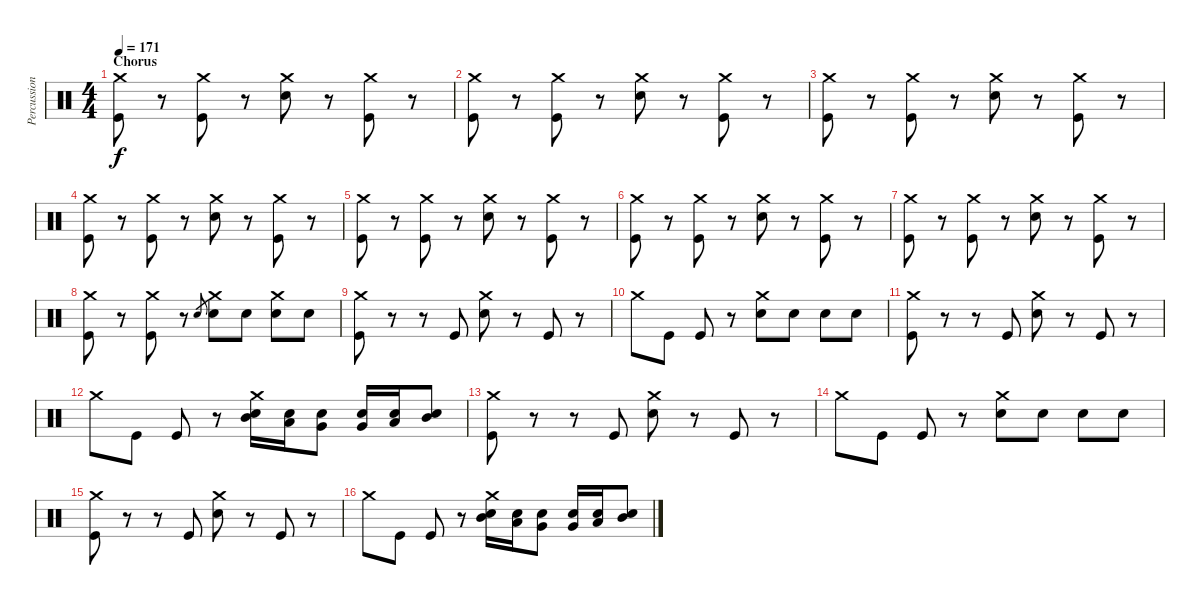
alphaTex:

\track ("Percussion" "Percussion") {instrument percussion}
\staff {score}
\articulation defaults
\ts (4 4)
\section ("" "Chorus")
\tempo 171
\clef neutral
\ks c
("Crash medium (hit)" "Kick (hit)").8{dy f} r.8 ("Crash medium (hit)" "Kick (hit)").8 r.8 ("Crash medium (hit)" "Electric Snare (hit)").8 r.8 ("Crash medium (hit)" "Kick (hit)").8 r.8 |
("Crash medium (hit)" "Kick (hit)").8 r.8 ("Crash medium (hit)" "Kick (hit)").8 r.8 ("Crash medium (hit)" "Electric Snare (hit)").8 r.8 ("Crash medium (hit)" "Kick (hit)").8 r.8 |
("Crash medium (hit)" "Kick (hit)").8 r.8 ("Crash medium (hit)" "Kick (hit)").8 r.8 ("Crash medium (hit)" "Electric Snare (hit)").8 r.8 ("Crash medium (hit)" "Kick (hit)").8 r.8 |
("Crash medium (hit)" "Kick (hit)").8 r.8 ("Crash medium (hit)" "Kick (hit)").8 r.8 ("Crash medium (hit)" "Electric Snare (hit)").8 r.8 ("Crash medium (hit)" "Kick (hit)").8 r.8 |
("Crash medium (hit)" "Kick (hit)").8 r.8 ("Crash medium (hit)" "Kick (hit)").8 r.8 ("Crash medium (hit)" "Electric Snare (hit)").8 r.8 ("Crash medium (hit)" "Kick (hit)").8 r.8 |
("Crash medium (hit)" "Kick (hit)").8 r.8 ("Crash medium (hit)" "Kick (hit)").8 r.8 ("Crash medium (hit)" "Electric Snare (hit)").8 r.8 ("Crash medium (hit)" "Kick (hit)").8 r.8 |
("Crash medium (hit)" "Kick (hit)").8 r.8 ("Crash medium (hit)" "Kick (hit)").8 r.8 ("Crash medium (hit)" "Electric Snare (hit)").8 r.8 ("Crash medium (hit)" "Kick (hit)").8 r.8 |
("Crash medium (hit)" "Kick (hit)").8 r.8 ("Crash medium (hit)" "Kick (hit)").8 r.8 "Electric Snare (hit)".8{gr} ("Crash medium (hit)" "Electric Snare (hit)").8 "Electric Snare (hit)".8 ("Crash medium (hit)" "Electric Snare (hit)").8 "Electric Snare (hit)".8 |
("Crash medium (hit)" "Kick (hit)").8 r.8 r.8 "Kick (hit)".8 ("Crash medium (hit)" "Electric Snare (hit)").8 r.8 "Kick (hit)".8 r.8 |
"Crash medium (hit)".8 "Kick (hit)".8 "Kick (hit)".8 r.8 ("Crash medium (hit)" "Electric Snare (hit)").8 "Electric Snare (hit)".8 "Electric Snare (hit)".8 "Electric Snare (hit)".8 |
("Crash medium (hit)" "Kick (hit)").8 r.8 r.8 "Kick (hit)".8 ("Crash medium (hit)" "Electric Snare (hit)").8 r.8 "Kick (hit)".8 r.8 |
"Crash medium (hit)".8 "Kick (hit)".8 "Kick (hit)".8 r.8 ("Crash medium (hit)" "Mid Tom (hit)" "Electric Snare (hit)").16 ("Low Tom (hit)" "Electric Snare (hit)").16 ("Very Low Tom (hit)" "Electric Snare (hit)").8 ("Very Low Tom (hit)" "Electric Snare (hit)").16 ("Low Tom (hit)" "Electric Snare (hit)").16 ("Mid Tom (hit)" "Electric Snare (hit)").8 |
("Crash medium (hit)" "Kick (hit)").8 r.8 r.8 "Kick (hit)".8 ("Crash medium (hit)" "Electric Snare (hit)").8 r.8 "Kick (hit)".8 r.8 |
"Crash medium (hit)".8 "Kick (hit)".8 "Kick (hit)".8 r.8 ("Crash medium (hit)" "Electric Snare (hit)").8 "Electric Snare (hit)".8 "Electric Snare (hit)".8 "Electric Snare (hit)".8 |
("Crash medium (hit)" "Kick (hit)").8 r.8 r.8 "Kick (hit)".8 ("Crash medium (hit)" "Electric Snare (hit)").8 r.8 "Kick (hit)".8 r.8 |
"Crash medium (hit)".8 "Kick (hit)".8 "Kick (hit)".8 r.8 ("Crash medium (hit)" "Mid Tom (hit)" "Electric Snare (hit)").16 ("Low Tom (hit)" "Electric Snare (hit)").16 ("Very Low Tom (hit)" "Electric Snare (hit)").8 ("Very Low Tom (hit)" "Electric Snare (hit)").16 ("Low Tom (hit)" "Electric Snare (hit)").16 ("Mid Tom (hit)" "Electric Snare (hit)").8
